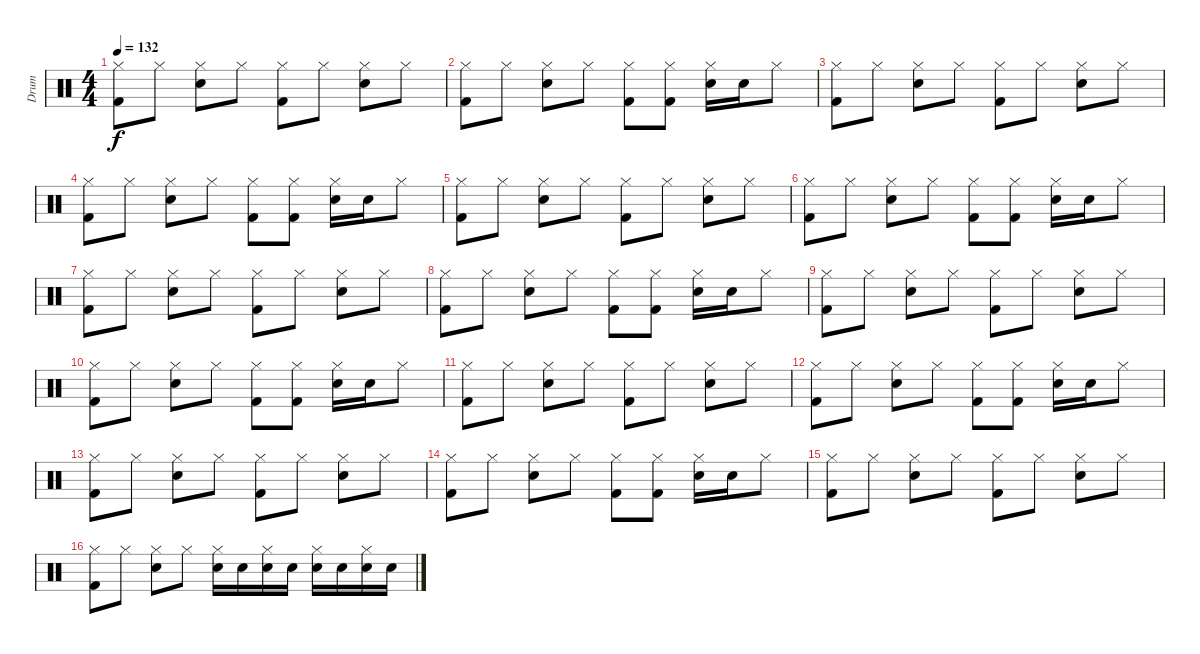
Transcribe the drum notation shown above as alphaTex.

\track ("Drum" "Drum") {instrument percussion}
\staff {score}
\articulation defaults
\ts (4 4)
\tempo 132
\clef neutral
\ks c
("Hi-Hat (closed)" "Kick (hit) 2").8{dy f} "Hi-Hat (closed)".8 ("Hi-Hat (closed)" "Electric Snare (hit)").8 "Hi-Hat (closed)".8 ("Hi-Hat (closed)" "Kick (hit) 2").8 "Hi-Hat (closed)".8 ("Hi-Hat (closed)" "Electric Snare (hit)").8 "Hi-Hat (closed)".8 |
("Hi-Hat (closed)" "Kick (hit) 2").8 "Hi-Hat (closed)".8 ("Hi-Hat (closed)" "Electric Snare (hit)").8 "Hi-Hat (closed)".8 ("Hi-Hat (closed)" "Kick (hit) 2").8 ("Hi-Hat (closed)" "Kick (hit) 2").8 ("Hi-Hat (closed)" "Electric Snare (hit)").16 "Electric Snare (hit)".16 "Hi-Hat (closed)".8 |
("Hi-Hat (closed)" "Kick (hit) 2").8 "Hi-Hat (closed)".8 ("Hi-Hat (closed)" "Electric Snare (hit)").8 "Hi-Hat (closed)".8 ("Hi-Hat (closed)" "Kick (hit) 2").8 "Hi-Hat (closed)".8 ("Hi-Hat (closed)" "Electric Snare (hit)").8 "Hi-Hat (closed)".8 |
("Hi-Hat (closed)" "Kick (hit) 2").8 "Hi-Hat (closed)".8 ("Hi-Hat (closed)" "Electric Snare (hit)").8 "Hi-Hat (closed)".8 ("Hi-Hat (closed)" "Kick (hit) 2").8 ("Hi-Hat (closed)" "Kick (hit) 2").8 ("Hi-Hat (closed)" "Electric Snare (hit)").16 "Electric Snare (hit)".16 "Hi-Hat (closed)".8 |
("Hi-Hat (closed)" "Kick (hit) 2").8 "Hi-Hat (closed)".8 ("Hi-Hat (closed)" "Electric Snare (hit)").8 "Hi-Hat (closed)".8 ("Hi-Hat (closed)" "Kick (hit) 2").8 "Hi-Hat (closed)".8 ("Hi-Hat (closed)" "Electric Snare (hit)").8 "Hi-Hat (closed)".8 |
("Hi-Hat (closed)" "Kick (hit) 2").8 "Hi-Hat (closed)".8 ("Hi-Hat (closed)" "Electric Snare (hit)").8 "Hi-Hat (closed)".8 ("Hi-Hat (closed)" "Kick (hit) 2").8 ("Hi-Hat (closed)" "Kick (hit) 2").8 ("Hi-Hat (closed)" "Electric Snare (hit)").16 "Electric Snare (hit)".16 "Hi-Hat (closed)".8 |
("Hi-Hat (closed)" "Kick (hit) 2").8 "Hi-Hat (closed)".8 ("Hi-Hat (closed)" "Electric Snare (hit)").8 "Hi-Hat (closed)".8 ("Hi-Hat (closed)" "Kick (hit) 2").8 "Hi-Hat (closed)".8 ("Hi-Hat (closed)" "Electric Snare (hit)").8 "Hi-Hat (closed)".8 |
("Hi-Hat (closed)" "Kick (hit) 2").8 "Hi-Hat (closed)".8 ("Hi-Hat (closed)" "Electric Snare (hit)").8 "Hi-Hat (closed)".8 ("Hi-Hat (closed)" "Kick (hit) 2").8 ("Hi-Hat (closed)" "Kick (hit) 2").8 ("Hi-Hat (closed)" "Electric Snare (hit)").16 "Electric Snare (hit)".16 "Hi-Hat (closed)".8 |
("Hi-Hat (closed)" "Kick (hit) 2").8 "Hi-Hat (closed)".8 ("Hi-Hat (closed)" "Electric Snare (hit)").8 "Hi-Hat (closed)".8 ("Hi-Hat (closed)" "Kick (hit) 2").8 "Hi-Hat (closed)".8 ("Hi-Hat (closed)" "Electric Snare (hit)").8 "Hi-Hat (closed)".8 |
("Hi-Hat (closed)" "Kick (hit) 2").8 "Hi-Hat (closed)".8 ("Hi-Hat (closed)" "Electric Snare (hit)").8 "Hi-Hat (closed)".8 ("Hi-Hat (closed)" "Kick (hit) 2").8 ("Hi-Hat (closed)" "Kick (hit) 2").8 ("Hi-Hat (closed)" "Electric Snare (hit)").16 "Electric Snare (hit)".16 "Hi-Hat (closed)".8 |
("Hi-Hat (closed)" "Kick (hit) 2").8 "Hi-Hat (closed)".8 ("Hi-Hat (closed)" "Electric Snare (hit)").8 "Hi-Hat (closed)".8 ("Hi-Hat (closed)" "Kick (hit) 2").8 "Hi-Hat (closed)".8 ("Hi-Hat (closed)" "Electric Snare (hit)").8 "Hi-Hat (closed)".8 |
("Hi-Hat (closed)" "Kick (hit) 2").8 "Hi-Hat (closed)".8 ("Hi-Hat (closed)" "Electric Snare (hit)").8 "Hi-Hat (closed)".8 ("Hi-Hat (closed)" "Kick (hit) 2").8 ("Hi-Hat (closed)" "Kick (hit) 2").8 ("Hi-Hat (closed)" "Electric Snare (hit)").16 "Electric Snare (hit)".16 "Hi-Hat (closed)".8 |
("Hi-Hat (closed)" "Kick (hit) 2").8 "Hi-Hat (closed)".8 ("Hi-Hat (closed)" "Electric Snare (hit)").8 "Hi-Hat (closed)".8 ("Hi-Hat (closed)" "Kick (hit) 2").8 "Hi-Hat (closed)".8 ("Hi-Hat (closed)" "Electric Snare (hit)").8 "Hi-Hat (closed)".8 |
("Hi-Hat (closed)" "Kick (hit) 2").8 "Hi-Hat (closed)".8 ("Hi-Hat (closed)" "Electric Snare (hit)").8 "Hi-Hat (closed)".8 ("Hi-Hat (closed)" "Kick (hit) 2").8 ("Hi-Hat (closed)" "Kick (hit) 2").8 ("Hi-Hat (closed)" "Electric Snare (hit)").16 "Electric Snare (hit)".16 "Hi-Hat (closed)".8 |
("Hi-Hat (closed)" "Kick (hit) 2").8 "Hi-Hat (closed)".8 ("Hi-Hat (closed)" "Electric Snare (hit)").8 "Hi-Hat (closed)".8 ("Hi-Hat (closed)" "Kick (hit) 2").8 "Hi-Hat (closed)".8 ("Hi-Hat (closed)" "Electric Snare (hit)").8 "Hi-Hat (closed)".8 |
("Hi-Hat (closed)" "Kick (hit) 2").8 "Hi-Hat (closed)".8 ("Hi-Hat (closed)" "Electric Snare (hit)").8 "Hi-Hat (closed)".8 ("Hi-Hat (closed)" "Electric Snare (hit)").16 "Electric Snare (hit)".16 ("Hi-Hat (closed)" "Electric Snare (hit)").16 "Electric Snare (hit)".16 ("Hi-Hat (closed)" "Electric Snare (hit)").16 "Electric Snare (hit)".16 ("Hi-Hat (closed)" "Electric Snare (hit)").16 "Electric Snare (hit)".16
